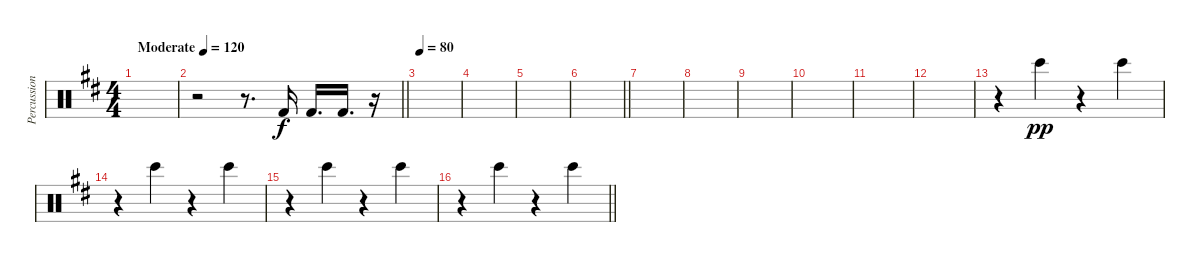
\track ("Percussion" "Percussion") {instrument percussion}
\staff {score}
\articulation defaults
\ts (4 4)
\tempo (120 "Moderate")
\tempo 60
\tempo (120 "Moderate")
\clef neutral
\ks d
|
\barLineRight lightlight
r.2 r.8{d} "Kick (hit) 2".16 "Kick (hit) 2".16{d} "Kick (hit) 2".16{d} r.16 |
\tempo 80
|
|
|
\barLineRight lightlight
|
|
|
|
|
|
|
r.4 "Bongo High (hit)".4{dy pp} r.4 "Bongo High (hit)".4 |
r.4 "Bongo High (hit)".4 r.4 "Bongo High (hit)".4 |
r.4 "Bongo High (hit)".4 r.4 "Bongo High (hit)".4 |
\barLineRight lightlight
r.4 "Bongo High (hit)".4 r.4 "Bongo High (hit)".4
